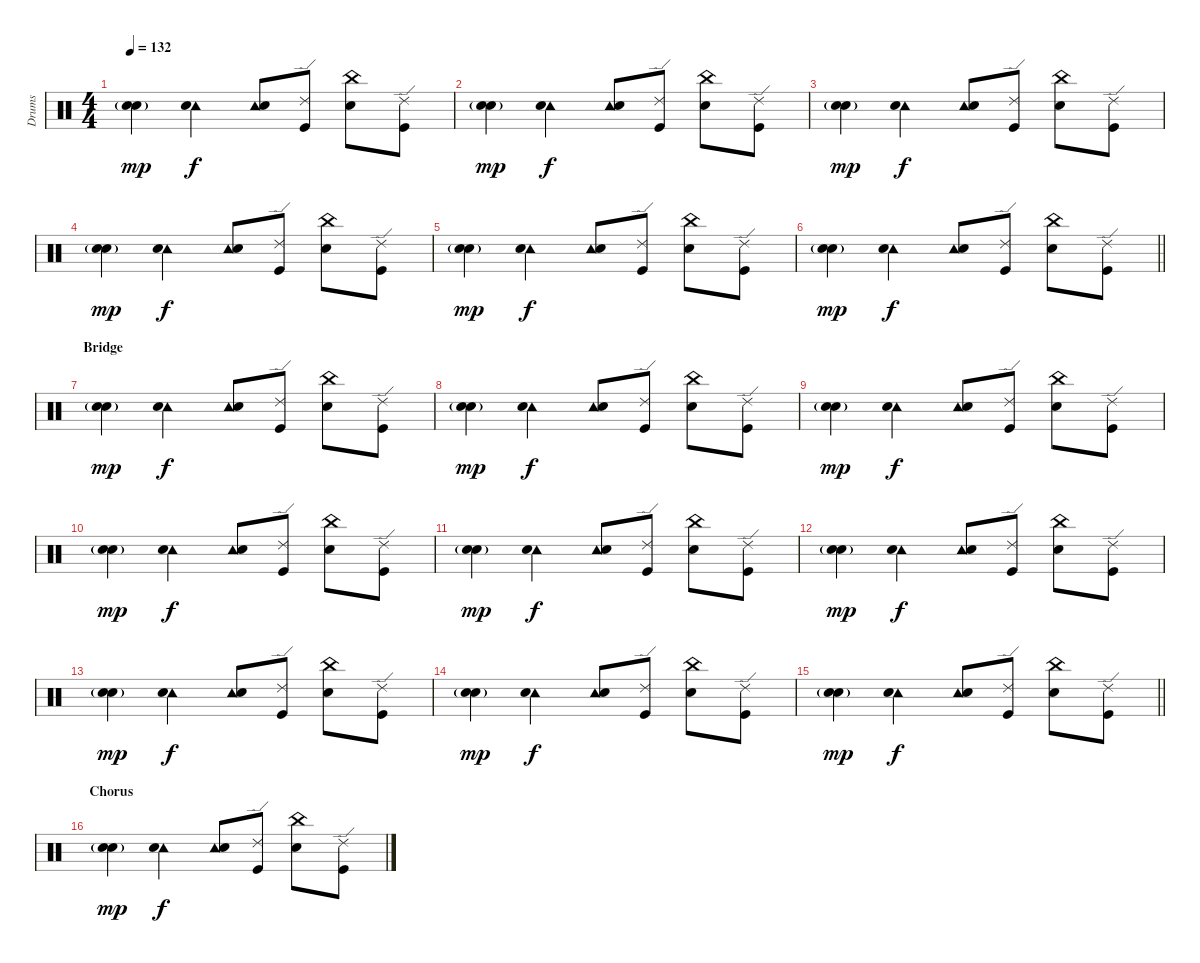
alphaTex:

\track ("Drums" "Drums") {instrument percussion}
\staff {score}
\articulation defaults
\ts (4 4)
\tempo 132
\clef neutral
\ks c
("Snare (hit) 2" "Electric Snare (hit)"{g}).4{dy mp} ("Tambourine (hit)" "Snare (hit) 2").4{dy f} ("Tambourine (hit)" "Snare (hit) 2").8 ("Ride (edge) 2" "Kick (hit)").8 ("China (hit)" "Snare (hit) 2").8 ("Ride (edge) 2" "Kick (hit)").8 |
("Snare (hit) 2" "Electric Snare (hit)"{g}).4{dy mp} ("Tambourine (hit)" "Snare (hit) 2").4{dy f} ("Tambourine (hit)" "Snare (hit) 2").8 ("Ride (edge) 2" "Kick (hit)").8 ("China (hit)" "Snare (hit) 2").8 ("Ride (edge) 2" "Kick (hit)").8 |
("Snare (hit) 2" "Electric Snare (hit)"{g}).4{dy mp} ("Tambourine (hit)" "Snare (hit) 2").4{dy f} ("Tambourine (hit)" "Snare (hit) 2").8 ("Ride (edge) 2" "Kick (hit)").8 ("China (hit)" "Snare (hit) 2").8 ("Ride (edge) 2" "Kick (hit)").8 |
("Snare (hit) 2" "Electric Snare (hit)"{g}).4{dy mp} ("Tambourine (hit)" "Snare (hit) 2").4{dy f} ("Tambourine (hit)" "Snare (hit) 2").8 ("Ride (edge) 2" "Kick (hit)").8 ("China (hit)" "Snare (hit) 2").8 ("Ride (edge) 2" "Kick (hit)").8 |
("Snare (hit) 2" "Electric Snare (hit)"{g}).4{dy mp} ("Tambourine (hit)" "Snare (hit) 2").4{dy f} ("Tambourine (hit)" "Snare (hit) 2").8 ("Ride (edge) 2" "Kick (hit)").8 ("China (hit)" "Snare (hit) 2").8 ("Ride (edge) 2" "Kick (hit)").8 |
\barLineRight lightlight
("Snare (hit) 2" "Electric Snare (hit)"{g}).4{dy mp} ("Tambourine (hit)" "Snare (hit) 2").4{dy f} ("Tambourine (hit)" "Snare (hit) 2").8 ("Ride (edge) 2" "Kick (hit)").8 ("China (hit)" "Snare (hit) 2").8 ("Ride (edge) 2" "Kick (hit)").8 |
\section ("" "Bridge")
("Snare (hit) 2" "Electric Snare (hit)"{g}).4{dy mp} ("Tambourine (hit)" "Snare (hit) 2").4{dy f} ("Tambourine (hit)" "Snare (hit) 2").8 ("Ride (edge) 2" "Kick (hit)").8 ("China (hit)" "Snare (hit) 2").8 ("Ride (edge) 2" "Kick (hit)").8 |
("Snare (hit) 2" "Electric Snare (hit)"{g}).4{dy mp} ("Tambourine (hit)" "Snare (hit) 2").4{dy f} ("Tambourine (hit)" "Snare (hit) 2").8 ("Ride (edge) 2" "Kick (hit)").8 ("China (hit)" "Snare (hit) 2").8 ("Ride (edge) 2" "Kick (hit)").8 |
("Snare (hit) 2" "Electric Snare (hit)"{g}).4{dy mp} ("Tambourine (hit)" "Snare (hit) 2").4{dy f} ("Tambourine (hit)" "Snare (hit) 2").8 ("Ride (edge) 2" "Kick (hit)").8 ("China (hit)" "Snare (hit) 2").8 ("Ride (edge) 2" "Kick (hit)").8 |
("Snare (hit) 2" "Electric Snare (hit)"{g}).4{dy mp} ("Tambourine (hit)" "Snare (hit) 2").4{dy f} ("Tambourine (hit)" "Snare (hit) 2").8 ("Ride (edge) 2" "Kick (hit)").8 ("China (hit)" "Snare (hit) 2").8 ("Ride (edge) 2" "Kick (hit)").8 |
("Snare (hit) 2" "Electric Snare (hit)"{g}).4{dy mp} ("Tambourine (hit)" "Snare (hit) 2").4{dy f} ("Tambourine (hit)" "Snare (hit) 2").8 ("Ride (edge) 2" "Kick (hit)").8 ("China (hit)" "Snare (hit) 2").8 ("Ride (edge) 2" "Kick (hit)").8 |
("Snare (hit) 2" "Electric Snare (hit)"{g}).4{dy mp} ("Tambourine (hit)" "Snare (hit) 2").4{dy f} ("Tambourine (hit)" "Snare (hit) 2").8 ("Ride (edge) 2" "Kick (hit)").8 ("China (hit)" "Snare (hit) 2").8 ("Ride (edge) 2" "Kick (hit)").8 |
("Snare (hit) 2" "Electric Snare (hit)"{g}).4{dy mp} ("Tambourine (hit)" "Snare (hit) 2").4{dy f} ("Tambourine (hit)" "Snare (hit) 2").8 ("Ride (edge) 2" "Kick (hit)").8 ("China (hit)" "Snare (hit) 2").8 ("Ride (edge) 2" "Kick (hit)").8 |
("Snare (hit) 2" "Electric Snare (hit)"{g}).4{dy mp} ("Tambourine (hit)" "Snare (hit) 2").4{dy f} ("Tambourine (hit)" "Snare (hit) 2").8 ("Ride (edge) 2" "Kick (hit)").8 ("China (hit)" "Snare (hit) 2").8 ("Ride (edge) 2" "Kick (hit)").8 |
\barLineRight lightlight
("Snare (hit) 2" "Electric Snare (hit)"{g}).4{dy mp} ("Tambourine (hit)" "Snare (hit) 2").4{dy f} ("Tambourine (hit)" "Snare (hit) 2").8 ("Ride (edge) 2" "Kick (hit)").8 ("China (hit)" "Snare (hit) 2").8 ("Ride (edge) 2" "Kick (hit)").8 |
\section ("" "Chorus")
("Snare (hit) 2" "Electric Snare (hit)"{g}).4{dy mp} ("Tambourine (hit)" "Snare (hit) 2").4{dy f} ("Tambourine (hit)" "Snare (hit) 2").8 ("Ride (edge) 2" "Kick (hit)").8 ("China (hit)" "Snare (hit) 2").8 ("Ride (edge) 2" "Kick (hit)").8
